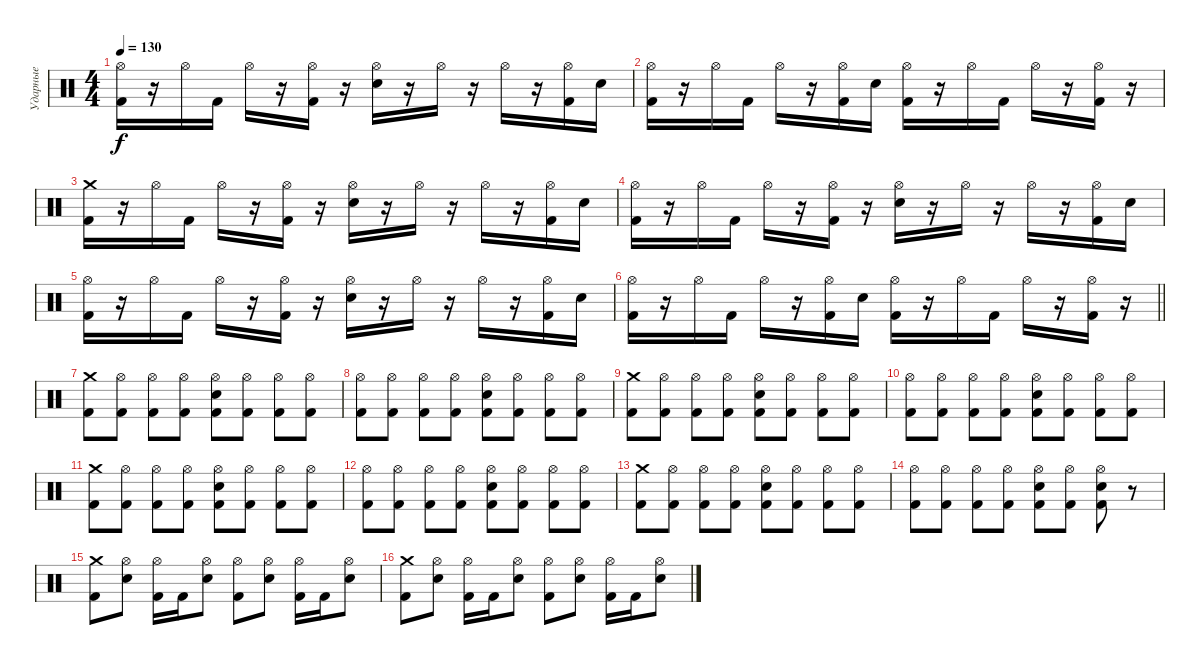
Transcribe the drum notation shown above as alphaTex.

\track ("Ударные" "Ударные") {instrument percussion}
\staff {score}
\articulation defaults
\ts (4 4)
\tempo 130
\clef neutral
\ks c
("Hi-Hat (open)" "Kick (hit) 2").16{dy f} r.16 "Hi-Hat (open)".16 "Kick (hit) 2".16 "Hi-Hat (open)".16 r.16 ("Hi-Hat (open)" "Kick (hit) 2").16 r.16 ("Hi-Hat (open)" "Electric Snare (hit)").16 r.16 "Hi-Hat (open)".16 r.16 "Hi-Hat (open)".16 r.16 ("Hi-Hat (open)" "Kick (hit) 2").16 "Electric Snare (hit)".16 |
("Hi-Hat (open)" "Kick (hit) 2").16 r.16 "Hi-Hat (open)".16 "Kick (hit) 2".16 "Hi-Hat (open)".16 r.16 ("Hi-Hat (open)" "Kick (hit) 2").16 "Electric Snare (hit)".16 ("Hi-Hat (open)" "Kick (hit) 2").16 r.16 "Hi-Hat (open)".16 "Kick (hit) 2".16 "Hi-Hat (open)".16 r.16 ("Hi-Hat (open)" "Kick (hit) 2").16 r.16 |
("Crash medium (hit)" "Kick (hit) 2").16 r.16 "Hi-Hat (open)".16 "Kick (hit) 2".16 "Hi-Hat (open)".16 r.16 ("Hi-Hat (open)" "Kick (hit) 2").16 r.16 ("Hi-Hat (open)" "Electric Snare (hit)").16 r.16 "Hi-Hat (open)".16 r.16 "Hi-Hat (open)".16 r.16 ("Hi-Hat (open)" "Kick (hit) 2").16 "Electric Snare (hit)".16 |
("Hi-Hat (open)" "Kick (hit) 2").16 r.16 "Hi-Hat (open)".16 "Kick (hit) 2".16 "Hi-Hat (open)".16 r.16 ("Hi-Hat (open)" "Kick (hit) 2").16 r.16 ("Hi-Hat (open)" "Electric Snare (hit)").16 r.16 "Hi-Hat (open)".16 r.16 "Hi-Hat (open)".16 r.16 ("Hi-Hat (open)" "Kick (hit) 2").16 "Electric Snare (hit)".16 |
("Hi-Hat (open)" "Kick (hit) 2").16 r.16 "Hi-Hat (open)".16 "Kick (hit) 2".16 "Hi-Hat (open)".16 r.16 ("Hi-Hat (open)" "Kick (hit) 2").16 r.16 ("Hi-Hat (open)" "Electric Snare (hit)").16 r.16 "Hi-Hat (open)".16 r.16 "Hi-Hat (open)".16 r.16 ("Hi-Hat (open)" "Kick (hit) 2").16 "Electric Snare (hit)".16 |
\barLineRight lightlight
("Hi-Hat (open)" "Kick (hit) 2").16 r.16 "Hi-Hat (open)".16 "Kick (hit) 2".16 "Hi-Hat (open)".16 r.16 ("Hi-Hat (open)" "Kick (hit) 2").16 "Electric Snare (hit)".16 ("Hi-Hat (open)" "Kick (hit) 2").16 r.16 "Hi-Hat (open)".16 "Kick (hit) 2".16 "Hi-Hat (open)".16 r.16 ("Hi-Hat (open)" "Kick (hit) 2").16 r.16 |
\section ("" "")
("Crash medium (hit)" "Kick (hit) 2").8 ("Hi-Hat (open)" "Kick (hit) 2").8 ("Hi-Hat (open)" "Kick (hit) 2").8 ("Hi-Hat (open)" "Kick (hit) 2").8 ("Hi-Hat (open)" "Electric Snare (hit)" "Kick (hit) 2").8 ("Hi-Hat (open)" "Kick (hit) 2").8 ("Hi-Hat (open)" "Kick (hit) 2").8 ("Hi-Hat (open)" "Kick (hit) 2").8 |
("Hi-Hat (open)" "Kick (hit) 2").8 ("Hi-Hat (open)" "Kick (hit) 2").8 ("Hi-Hat (open)" "Kick (hit) 2").8 ("Hi-Hat (open)" "Kick (hit) 2").8 ("Hi-Hat (open)" "Electric Snare (hit)" "Kick (hit) 2").8 ("Hi-Hat (open)" "Kick (hit) 2").8 ("Hi-Hat (open)" "Kick (hit) 2").8 ("Hi-Hat (open)" "Kick (hit) 2").8 |
("Crash medium (hit)" "Kick (hit) 2").8 ("Hi-Hat (open)" "Kick (hit) 2").8 ("Hi-Hat (open)" "Kick (hit) 2").8 ("Hi-Hat (open)" "Kick (hit) 2").8 ("Hi-Hat (open)" "Electric Snare (hit)" "Kick (hit) 2").8 ("Hi-Hat (open)" "Kick (hit) 2").8 ("Hi-Hat (open)" "Kick (hit) 2").8 ("Hi-Hat (open)" "Kick (hit) 2").8 |
("Hi-Hat (open)" "Kick (hit) 2").8 ("Hi-Hat (open)" "Kick (hit) 2").8 ("Hi-Hat (open)" "Kick (hit) 2").8 ("Hi-Hat (open)" "Kick (hit) 2").8 ("Hi-Hat (open)" "Electric Snare (hit)" "Kick (hit) 2").8 ("Hi-Hat (open)" "Kick (hit) 2").8 ("Hi-Hat (open)" "Kick (hit) 2").8 ("Hi-Hat (open)" "Kick (hit) 2").8 |
("Crash medium (hit)" "Kick (hit) 2").8 ("Hi-Hat (open)" "Kick (hit) 2").8 ("Hi-Hat (open)" "Kick (hit) 2").8 ("Hi-Hat (open)" "Kick (hit) 2").8 ("Hi-Hat (open)" "Electric Snare (hit)" "Kick (hit) 2").8 ("Hi-Hat (open)" "Kick (hit) 2").8 ("Hi-Hat (open)" "Kick (hit) 2").8 ("Hi-Hat (open)" "Kick (hit) 2").8 |
("Hi-Hat (open)" "Kick (hit) 2").8 ("Hi-Hat (open)" "Kick (hit) 2").8 ("Hi-Hat (open)" "Kick (hit) 2").8 ("Hi-Hat (open)" "Kick (hit) 2").8 ("Hi-Hat (open)" "Electric Snare (hit)" "Kick (hit) 2").8 ("Hi-Hat (open)" "Kick (hit) 2").8 ("Hi-Hat (open)" "Kick (hit) 2").8 ("Hi-Hat (open)" "Kick (hit) 2").8 |
("Crash medium (hit)" "Kick (hit) 2").8 ("Hi-Hat (open)" "Kick (hit) 2").8 ("Hi-Hat (open)" "Kick (hit) 2").8 ("Hi-Hat (open)" "Kick (hit) 2").8 ("Hi-Hat (open)" "Electric Snare (hit)" "Kick (hit) 2").8 ("Hi-Hat (open)" "Kick (hit) 2").8 ("Hi-Hat (open)" "Kick (hit) 2").8 ("Hi-Hat (open)" "Kick (hit) 2").8 |
("Hi-Hat (open)" "Kick (hit) 2").8 ("Hi-Hat (open)" "Kick (hit) 2").8 ("Hi-Hat (open)" "Kick (hit) 2").8 ("Hi-Hat (open)" "Kick (hit) 2").8 ("Hi-Hat (open)" "Electric Snare (hit)" "Kick (hit) 2").8 ("Hi-Hat (open)" "Kick (hit) 2").8 ("Hi-Hat (open)" "Electric Snare (hit)" "Kick (hit) 2").8 r.8 |
("Crash medium (hit)" "Kick (hit) 2").8 ("Hi-Hat (open)" "Electric Snare (hit)").8 ("Hi-Hat (open)" "Kick (hit) 2").16 "Kick (hit) 2".16 ("Hi-Hat (open)" "Electric Snare (hit)").8 ("Hi-Hat (open)" "Kick (hit) 2").8 ("Hi-Hat (open)" "Electric Snare (hit)").8 ("Hi-Hat (open)" "Kick (hit) 2").16 "Kick (hit) 2".16 ("Hi-Hat (open)" "Electric Snare (hit)").8 |
("Crash medium (hit)" "Kick (hit) 2").8 ("Hi-Hat (open)" "Electric Snare (hit)").8 ("Hi-Hat (open)" "Kick (hit) 2").16 "Kick (hit) 2".16 ("Hi-Hat (open)" "Electric Snare (hit)").8 ("Hi-Hat (open)" "Kick (hit) 2").8 ("Hi-Hat (open)" "Electric Snare (hit)").8 ("Hi-Hat (open)" "Kick (hit) 2").16 "Kick (hit) 2".16 ("Hi-Hat (open)" "Electric Snare (hit)").8
